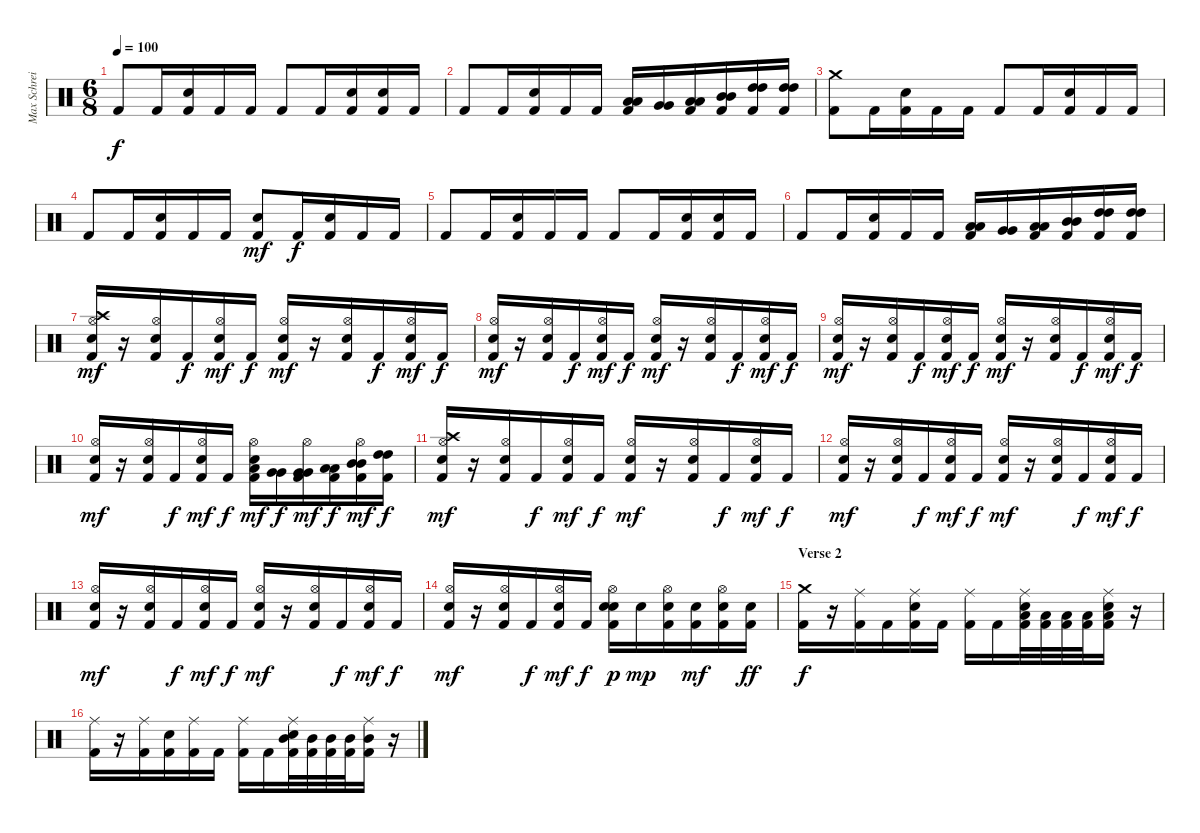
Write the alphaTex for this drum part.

\track ("Max Schreiber " "Max Schrei") {instrument percussion}
\staff {score}
\articulation defaults
\ts (6 8)
\tempo 100
\clef neutral
\ks c "Kick (hit) 2".8{dy f} "Kick (hit) 2".16
("Electric Snare (hit)" "Kick (hit) 2").16 "Kick (hit) 2".16 "Kick (hit) 2".16 "Kick (hit) 2".8 "Kick (hit) 2".16 ("Electric Snare (hit)" "Kick (hit) 2").16 ("Electric Snare (hit)" "Kick (hit) 2").16 "Kick (hit) 2".16 |
"Kick (hit) 2".8 "Kick (hit) 2".16 ("Electric Snare (hit)" "Kick (hit) 2").16 "Kick (hit) 2".16 "Kick (hit) 2".16 ("Low Floor Tom (hit)" "Low Floor Tom (hit)" "Kick (hit) 2").16 ("Very Low Tom (hit)" "Very Low Tom (hit)").16 ("Low Tom (hit)" "Low Tom (hit)" "Kick (hit) 2").16 ("Mid Tom (hit)" "Mid Tom (hit)" "Kick (hit) 2").16 ("High Tom (hit)" "High Tom (hit)" "Kick (hit) 2").16 ("High Tom (hit)" "High Tom (hit)" "Kick (hit) 2").16 |
("Crash medium (hit)" "Kick (hit) 2").8 "Kick (hit) 2".16 ("Electric Snare (hit)" "Kick (hit) 2").16 "Kick (hit) 2".16 "Kick (hit) 2".16 "Kick (hit) 2".8 "Kick (hit) 2".16 ("Electric Snare (hit)" "Kick (hit) 2").16 "Kick (hit) 2".16 "Kick (hit) 2".16 |
"Kick (hit) 2".8 "Kick (hit) 2".16 ("Electric Snare (hit)" "Kick (hit) 2").16 "Kick (hit) 2".16 "Kick (hit) 2".16 ("Electric Snare (hit)" "Kick (hit) 2").8{dy mf} "Kick (hit) 2".16{dy f} ("Electric Snare (hit)" "Kick (hit) 2").16 "Kick (hit) 2".16 "Kick (hit) 2".16 |
"Kick (hit) 2".8 "Kick (hit) 2".16 ("Electric Snare (hit)" "Kick (hit) 2").16 "Kick (hit) 2".16 "Kick (hit) 2".16 "Kick (hit) 2".8 "Kick (hit) 2".16 ("Electric Snare (hit)" "Kick (hit) 2").16 ("Electric Snare (hit)" "Kick (hit) 2").16 "Kick (hit) 2".16 |
"Kick (hit) 2".8 "Kick (hit) 2".16 ("Electric Snare (hit)" "Kick (hit) 2").16 "Kick (hit) 2".16 "Kick (hit) 2".16 ("Low Floor Tom (hit)" "Low Floor Tom (hit)" "Kick (hit) 2").16 ("Very Low Tom (hit)" "Very Low Tom (hit)").16 ("Low Tom (hit)" "Low Tom (hit)" "Kick (hit) 2").16 ("Mid Tom (hit)" "Mid Tom (hit)" "Kick (hit) 2").16 ("High Tom (hit)" "High Tom (hit)" "Kick (hit) 2").16 ("High Tom (hit)" "High Tom (hit)" "Kick (hit) 2").16 |
("Hi-Hat (open)" "Crash high (hit)" "Snare (hit) 2" "Kick (hit) 2").16{dy mf} r.16 ("Hi-Hat (open)" "Snare (hit) 2" "Kick (hit) 2").16 "Kick (hit) 2".16{dy f} ("Hi-Hat (open)" "Snare (hit) 2" "Kick (hit) 2").16{dy mf} "Kick (hit) 2".16{dy f} ("Hi-Hat (open)" "Snare (hit) 2" "Kick (hit) 2").16{dy mf} r.16 ("Hi-Hat (open)" "Snare (hit) 2" "Kick (hit) 2").16 "Kick (hit) 2".16{dy f} ("Hi-Hat (open)" "Snare (hit) 2" "Kick (hit) 2").16{dy mf} "Kick (hit) 2".16{dy f} |
("Hi-Hat (open)" "Snare (hit) 2" "Kick (hit) 2").16{dy mf} r.16 ("Hi-Hat (open)" "Snare (hit) 2" "Kick (hit) 2").16 "Kick (hit) 2".16{dy f} ("Hi-Hat (open)" "Snare (hit) 2" "Kick (hit) 2").16{dy mf} "Kick (hit) 2".16{dy f} ("Hi-Hat (open)" "Snare (hit) 2" "Kick (hit) 2").16{dy mf} r.16 ("Hi-Hat (open)" "Snare (hit) 2" "Kick (hit) 2").16 "Kick (hit) 2".16{dy f} ("Hi-Hat (open)" "Snare (hit) 2" "Kick (hit) 2").16{dy mf} "Kick (hit) 2".16{dy f} |
("Hi-Hat (open)" "Snare (hit) 2" "Kick (hit) 2").16{dy mf} r.16 ("Hi-Hat (open)" "Snare (hit) 2" "Kick (hit) 2").16 "Kick (hit) 2".16{dy f} ("Hi-Hat (open)" "Snare (hit) 2" "Kick (hit) 2").16{dy mf} "Kick (hit) 2".16{dy f} ("Hi-Hat (open)" "Snare (hit) 2" "Kick (hit) 2").16{dy mf} r.16 ("Hi-Hat (open)" "Snare (hit) 2" "Kick (hit) 2").16 "Kick (hit) 2".16{dy f} ("Hi-Hat (open)" "Snare (hit) 2" "Kick (hit) 2").16{dy mf} "Kick (hit) 2".16{dy f} |
("Hi-Hat (open)" "Snare (hit) 2" "Kick (hit) 2").16{dy mf} r.16 ("Hi-Hat (open)" "Snare (hit) 2" "Kick (hit) 2").16 "Kick (hit) 2".16{dy f} ("Hi-Hat (open)" "Snare (hit) 2" "Kick (hit) 2").16{dy mf} "Kick (hit) 2".16{dy f} ("Hi-Hat (open)" "Snare (hit) 2" "Low Floor Tom (hit)" "Kick (hit) 2").16{dy mf} ("Very Low Tom (hit)" "Very Low Tom (hit)").16{dy f} ("Hi-Hat (open)" "Very Low Tom (hit)" "Very Low Tom (hit)" "Kick (hit) 2").16{dy mf} ("Low Tom (hit)" "Low Tom (hit)" "Kick (hit) 2").16{dy f} ("Hi-Hat (open)" "Mid Tom (hit)" "Mid Tom (hit)" "Kick (hit) 2").16{dy mf} ("High Tom (hit)" "High Tom (hit)" "Kick (hit) 2").16{dy f} |
("Hi-Hat (open)" "Crash high (hit)" "Snare (hit) 2" "Kick (hit) 2").16{dy mf} r.16 ("Hi-Hat (open)" "Snare (hit) 2" "Kick (hit) 2").16 "Kick (hit) 2".16{dy f} ("Hi-Hat (open)" "Snare (hit) 2" "Kick (hit) 2").16{dy mf} "Kick (hit) 2".16{dy f} ("Hi-Hat (open)" "Snare (hit) 2" "Kick (hit) 2").16{dy mf} r.16 ("Hi-Hat (open)" "Snare (hit) 2" "Kick (hit) 2").16 "Kick (hit) 2".16{dy f} ("Hi-Hat (open)" "Snare (hit) 2" "Kick (hit) 2").16{dy mf} "Kick (hit) 2".16{dy f} |
("Hi-Hat (open)" "Snare (hit) 2" "Kick (hit) 2").16{dy mf} r.16 ("Hi-Hat (open)" "Snare (hit) 2" "Kick (hit) 2").16 "Kick (hit) 2".16{dy f} ("Hi-Hat (open)" "Snare (hit) 2" "Kick (hit) 2").16{dy mf} "Kick (hit) 2".16{dy f} ("Hi-Hat (open)" "Snare (hit) 2" "Kick (hit) 2").16{dy mf} r.16 ("Hi-Hat (open)" "Snare (hit) 2" "Kick (hit) 2").16 "Kick (hit) 2".16{dy f} ("Hi-Hat (open)" "Snare (hit) 2" "Kick (hit) 2").16{dy mf} "Kick (hit) 2".16{dy f} |
("Hi-Hat (open)" "Snare (hit) 2" "Kick (hit) 2").16{dy mf} r.16 ("Hi-Hat (open)" "Snare (hit) 2" "Kick (hit) 2").16 "Kick (hit) 2".16{dy f} ("Hi-Hat (open)" "Snare (hit) 2" "Kick (hit) 2").16{dy mf} "Kick (hit) 2".16{dy f} ("Hi-Hat (open)" "Snare (hit) 2" "Kick (hit) 2").16{dy mf} r.16 ("Hi-Hat (open)" "Snare (hit) 2" "Kick (hit) 2").16 "Kick (hit) 2".16{dy f} ("Hi-Hat (open)" "Snare (hit) 2" "Kick (hit) 2").16{dy mf} "Kick (hit) 2".16{dy f} |
("Hi-Hat (open)" "Snare (hit) 2" "Kick (hit) 2").16{dy mf} r.16 ("Hi-Hat (open)" "Snare (hit) 2" "Kick (hit) 2").16 "Kick (hit) 2".16{dy f} ("Hi-Hat (open)" "Snare (hit) 2" "Kick (hit) 2").16{dy mf} "Kick (hit) 2".16{dy f} ("Hi-Hat (open)" "Snare (hit) 2" "Electric Snare (hit)" "Kick (hit) 2").16{dy p} "Electric Snare (hit)".16{dy mp} ("Hi-Hat (open)" "Electric Snare (hit)" "Kick (hit) 2").16 ("Electric Snare (hit)" "Kick (hit) 2").16{dy mf} ("Hi-Hat (open)" "Electric Snare (hit)" "Kick (hit) 2").16 ("Electric Snare (hit)" "Kick (hit) 2").16{dy ff} |
\section ("" "Verse 2")
("Crash medium (hit)" "Kick (hit) 2").16{dy f} r.16 ("Ride (middle)" "Kick (hit) 2").16 "Kick (hit) 2".16 ("Ride (middle)" "Electric Snare (hit)" "Kick (hit) 2").16 "Kick (hit) 2".16 ("Ride (middle)" "Kick (hit) 2").16 "Kick (hit) 2".16 ("Ride (middle)" "Electric Snare (hit)" "Low Floor Tom (hit)" "Kick (hit) 2").32 ("Low Floor Tom (hit)" "Kick (hit) 2").32 ("Low Floor Tom (hit)" "Kick (hit) 2").32 ("Low Floor Tom (hit)" "Kick (hit) 2").32 ("Ride (middle)" "Electric Snare (hit)" "Low Floor Tom (hit)" "Kick (hit) 2").16 r.16 |
("Ride (middle)" "Kick (hit) 2").16 r.16 ("Ride (middle)" "Kick (hit) 2").16 ("Electric Snare (hit)" "Kick (hit) 2").16 ("Ride (middle)" "Kick (hit) 2").16 "Kick (hit) 2".16 ("Ride (middle)" "Kick (hit) 2").16 "Kick (hit) 2".16 ("Ride (middle)" "Electric Snare (hit)" "Mid Tom (hit)" "Kick (hit) 2").32 ("Mid Tom (hit)" "Kick (hit) 2").32 ("Mid Tom (hit)" "Kick (hit) 2").32 ("Mid Tom (hit)" "Kick (hit) 2").32 ("Ride (middle)" "Mid Tom (hit)" "Kick (hit) 2").16 r.16
